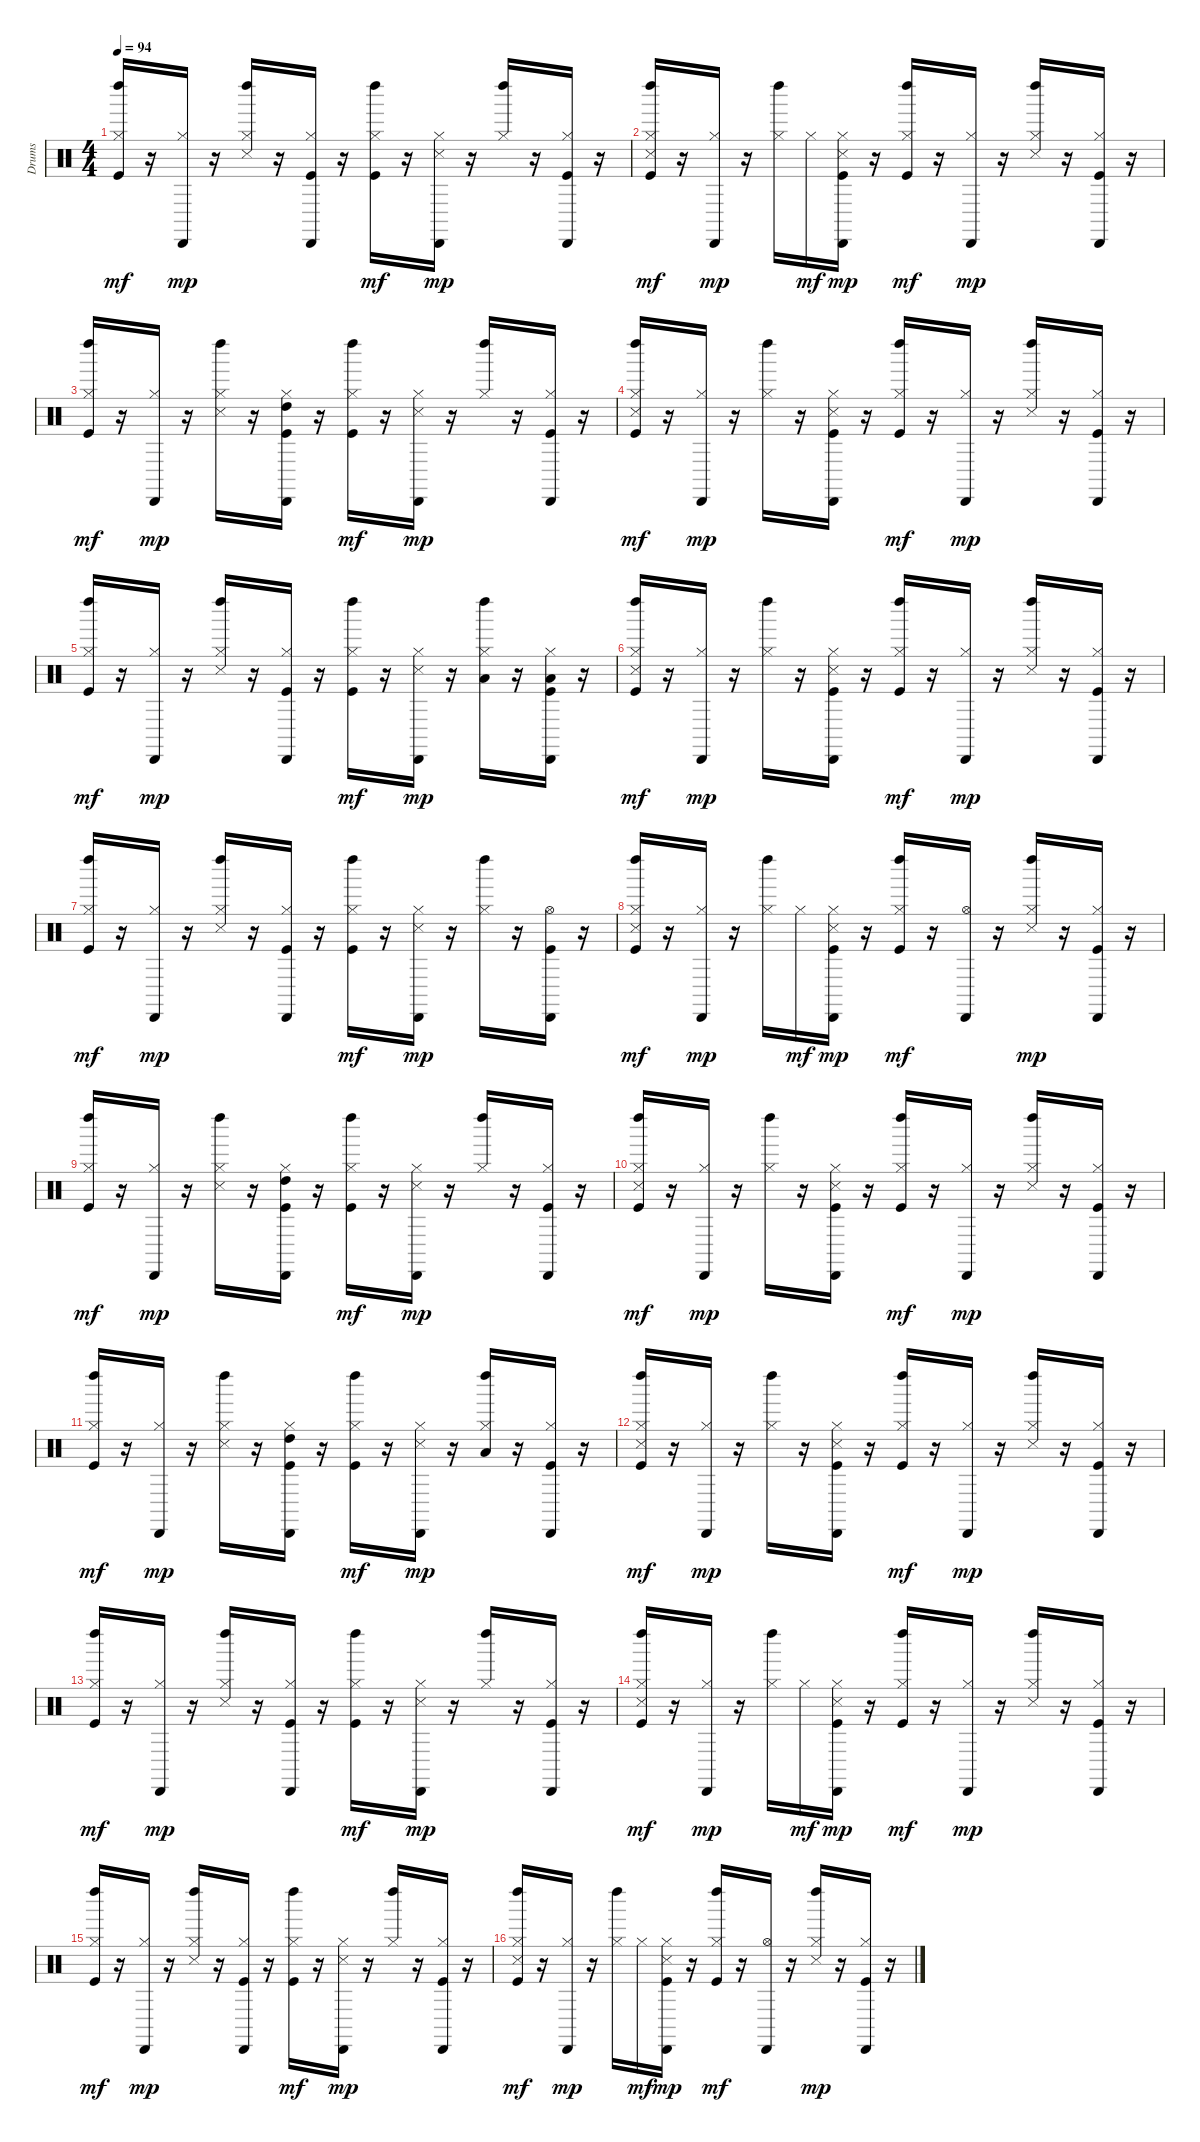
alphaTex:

\track ("Drums" "Drums") {instrument percussion}
\staff {score}
\articulation defaults
\ts (4 4)
\tempo 94
\clef neutral
\ks c
("Left Maraca (hit)" "Hi-Hat (closed)" "Kick (hit)").16{dy mf} r.16 ("Cabasa (hit)" "Hi-Hat (closed)").16{dy mp} r.16 ("Left Maraca (hit)" "Hi-Hat (closed)" "Snare (side stick) 3").16 r.16 ("Cabasa (hit)" "Hi-Hat (closed)" "Kick (hit)").16 r.16 ("Left Maraca (hit)" "Hi-Hat (closed)" "Kick (hit)").16{dy mf} r.16 ("Cabasa (hit)" "Hi-Hat (closed)" "Snare (side stick) 3").16{dy mp} r.16 ("Left Maraca (hit)" "Hi-Hat (closed)").16 r.16 ("Cabasa (hit)" "Hi-Hat (closed)" "Kick (hit)").16 r.16 |
("Left Maraca (hit)" "Hi-Hat (closed)" "Snare (side stick) 3" "Kick (hit)").16{dy mf} r.16 ("Cabasa (hit)" "Hi-Hat (closed)").16{dy mp} r.16 ("Left Maraca (hit)" "Hi-Hat (closed)").16 "Hi-Hat (closed)".16{dy mf} ("Cabasa (hit)" "Hi-Hat (closed)" "Snare (side stick) 3" "Kick (hit)").16{dy mp} r.16 ("Left Maraca (hit)" "Hi-Hat (closed)" "Kick (hit)").16{dy mf} r.16 ("Cabasa (hit)" "Hi-Hat (closed)").16{dy mp} r.16 ("Left Maraca (hit)" "Hi-Hat (closed)" "Snare (side stick) 3").16 r.16 ("Cabasa (hit)" "Hi-Hat (closed)" "Kick (hit)").16 r.16 |
("Left Maraca (hit)" "Hi-Hat (closed)" "Kick (hit)").16{dy mf} r.16 ("Cabasa (hit)" "Hi-Hat (closed)").16{dy mp} r.16 ("Left Maraca (hit)" "Hi-Hat (closed)" "Snare (side stick) 3").16 r.16 ("Cabasa (hit)" "High Tom (hit)" "Hi-Hat (closed)" "Kick (hit)").16 r.16 ("Left Maraca (hit)" "Hi-Hat (closed)" "Kick (hit)").16{dy mf} r.16 ("Cabasa (hit)" "Hi-Hat (closed)" "Snare (side stick) 3").16{dy mp} r.16 ("Left Maraca (hit)" "Hi-Hat (closed)").16 r.16 ("Cabasa (hit)" "Hi-Hat (closed)" "Kick (hit)").16 r.16 |
("Left Maraca (hit)" "Hi-Hat (closed)" "Snare (side stick) 3" "Kick (hit)").16{dy mf} r.16 ("Cabasa (hit)" "Hi-Hat (closed)").16{dy mp} r.16 ("Left Maraca (hit)" "Hi-Hat (closed)").16 r.16 ("Cabasa (hit)" "Hi-Hat (closed)" "Snare (side stick) 3" "Kick (hit)").16 r.16 ("Left Maraca (hit)" "Hi-Hat (closed)" "Kick (hit)").16{dy mf} r.16 ("Cabasa (hit)" "Hi-Hat (closed)").16{dy mp} r.16 ("Left Maraca (hit)" "Hi-Hat (closed)" "Snare (side stick) 3").16 r.16 ("Cabasa (hit)" "Hi-Hat (closed)" "Kick (hit)").16 r.16 |
("Left Maraca (hit)" "Hi-Hat (closed)" "Kick (hit)").16{dy mf} r.16 ("Cabasa (hit)" "Hi-Hat (closed)").16{dy mp} r.16 ("Left Maraca (hit)" "Hi-Hat (closed)" "Snare (side stick) 3").16 r.16 ("Cabasa (hit)" "Hi-Hat (closed)" "Kick (hit)").16 r.16 ("Left Maraca (hit)" "Hi-Hat (closed)" "Kick (hit)").16{dy mf} r.16 ("Cabasa (hit)" "Hi-Hat (closed)" "Snare (side stick) 3").16{dy mp} r.16 ("Left Maraca (hit)" "Low Tom (hit)" "Hi-Hat (closed)").16 r.16 ("Cabasa (hit)" "Low Tom (hit)" "Hi-Hat (closed)" "Kick (hit)").16 r.16 |
("Left Maraca (hit)" "Hi-Hat (closed)" "Snare (side stick) 3" "Kick (hit)").16{dy mf} r.16 ("Cabasa (hit)" "Hi-Hat (closed)").16{dy mp} r.16 ("Left Maraca (hit)" "Hi-Hat (closed)").16 r.16 ("Cabasa (hit)" "Hi-Hat (closed)" "Snare (side stick) 3" "Kick (hit)").16 r.16 ("Left Maraca (hit)" "Hi-Hat (closed)" "Kick (hit)").16{dy mf} r.16 ("Cabasa (hit)" "Hi-Hat (closed)").16{dy mp} r.16 ("Left Maraca (hit)" "Hi-Hat (closed)" "Snare (side stick) 3").16 r.16 ("Cabasa (hit)" "Hi-Hat (closed)" "Kick (hit)").16 r.16 |
("Left Maraca (hit)" "Hi-Hat (closed)" "Kick (hit)").16{dy mf} r.16 ("Cabasa (hit)" "Hi-Hat (closed)").16{dy mp} r.16 ("Left Maraca (hit)" "Hi-Hat (closed)" "Snare (side stick) 3").16 r.16 ("Cabasa (hit)" "Hi-Hat (closed)" "Kick (hit)").16 r.16 ("Left Maraca (hit)" "Hi-Hat (closed)" "Kick (hit)").16{dy mf} r.16 ("Cabasa (hit)" "Hi-Hat (closed)" "Snare (side stick) 3").16{dy mp} r.16 ("Left Maraca (hit)" "Hi-Hat (closed)").16 r.16 ("Cabasa (hit)" "Hi-Hat (open)" "Kick (hit)").16 r.16 |
("Left Maraca (hit)" "Hi-Hat (closed)" "Snare (side stick) 3" "Kick (hit)").16{dy mf} r.16 ("Cabasa (hit)" "Hi-Hat (closed)").16{dy mp} r.16 ("Left Maraca (hit)" "Hi-Hat (closed)").16 "Hi-Hat (closed)".16{dy mf} ("Cabasa (hit)" "Hi-Hat (closed)" "Snare (side stick) 3" "Kick (hit)").16{dy mp} r.16 ("Left Maraca (hit)" "Hi-Hat (closed)" "Kick (hit)").16{dy mf} r.16 ("Cabasa (hit)" "Hi-Hat (open)").16 r.16 ("Left Maraca (hit)" "Hi-Hat (closed)" "Snare (side stick) 3").16{dy mp} r.16 ("Cabasa (hit)" "Hi-Hat (closed)" "Kick (hit)").16 r.16 |
("Left Maraca (hit)" "Hi-Hat (closed)" "Kick (hit)").16{dy mf} r.16 ("Cabasa (hit)" "Hi-Hat (closed)").16{dy mp} r.16 ("Left Maraca (hit)" "Hi-Hat (closed)" "Snare (side stick) 3").16 r.16 ("Cabasa (hit)" "High Tom (hit)" "Hi-Hat (closed)" "Kick (hit)").16 r.16 ("Left Maraca (hit)" "Hi-Hat (closed)" "Kick (hit)").16{dy mf} r.16 ("Cabasa (hit)" "Hi-Hat (closed)" "Snare (side stick) 3").16{dy mp} r.16 ("Left Maraca (hit)" "Hi-Hat (closed)").16 r.16 ("Cabasa (hit)" "Hi-Hat (closed)" "Kick (hit)").16 r.16 |
("Left Maraca (hit)" "Hi-Hat (closed)" "Snare (side stick) 3" "Kick (hit)").16{dy mf} r.16 ("Cabasa (hit)" "Hi-Hat (closed)").16{dy mp} r.16 ("Left Maraca (hit)" "Hi-Hat (closed)").16 r.16 ("Cabasa (hit)" "Hi-Hat (closed)" "Snare (side stick) 3" "Kick (hit)").16 r.16 ("Left Maraca (hit)" "Hi-Hat (closed)" "Kick (hit)").16{dy mf} r.16 ("Cabasa (hit)" "Hi-Hat (closed)").16{dy mp} r.16 ("Left Maraca (hit)" "Hi-Hat (closed)" "Snare (side stick) 3").16 r.16 ("Cabasa (hit)" "Hi-Hat (closed)" "Kick (hit)").16 r.16 |
("Left Maraca (hit)" "Hi-Hat (closed)" "Kick (hit)").16{dy mf} r.16 ("Cabasa (hit)" "Hi-Hat (closed)").16{dy mp} r.16 ("Left Maraca (hit)" "Hi-Hat (closed)" "Snare (side stick) 3").16 r.16 ("Cabasa (hit)" "High Tom (hit)" "Hi-Hat (closed)" "Kick (hit)").16 r.16 ("Left Maraca (hit)" "Hi-Hat (closed)" "Kick (hit)").16{dy mf} r.16 ("Cabasa (hit)" "Hi-Hat (closed)" "Snare (side stick) 3").16{dy mp} r.16 ("Left Maraca (hit)" "Low Tom (hit)" "Hi-Hat (closed)").16 r.16 ("Cabasa (hit)" "Hi-Hat (closed)" "Kick (hit)").16 r.16 |
("Left Maraca (hit)" "Hi-Hat (closed)" "Snare (side stick) 3" "Kick (hit)").16{dy mf} r.16 ("Cabasa (hit)" "Hi-Hat (closed)").16{dy mp} r.16 ("Left Maraca (hit)" "Hi-Hat (closed)").16 r.16 ("Cabasa (hit)" "Hi-Hat (closed)" "Snare (side stick) 3" "Kick (hit)").16 r.16 ("Left Maraca (hit)" "Hi-Hat (closed)" "Kick (hit)").16{dy mf} r.16 ("Cabasa (hit)" "Hi-Hat (closed)").16{dy mp} r.16 ("Left Maraca (hit)" "Hi-Hat (closed)" "Snare (side stick) 3").16 r.16 ("Cabasa (hit)" "Hi-Hat (closed)" "Kick (hit)").16 r.16 |
("Left Maraca (hit)" "Hi-Hat (closed)" "Kick (hit)").16{dy mf} r.16 ("Cabasa (hit)" "Hi-Hat (closed)").16{dy mp} r.16 ("Left Maraca (hit)" "Hi-Hat (closed)" "Snare (side stick) 3").16 r.16 ("Cabasa (hit)" "Hi-Hat (closed)" "Kick (hit)").16 r.16 ("Left Maraca (hit)" "Hi-Hat (closed)" "Kick (hit)").16{dy mf} r.16 ("Cabasa (hit)" "Hi-Hat (closed)" "Snare (side stick) 3").16{dy mp} r.16 ("Left Maraca (hit)" "Hi-Hat (closed)").16 r.16 ("Cabasa (hit)" "Hi-Hat (closed)" "Kick (hit)").16 r.16 |
("Left Maraca (hit)" "Hi-Hat (closed)" "Snare (side stick) 3" "Kick (hit)").16{dy mf} r.16 ("Cabasa (hit)" "Hi-Hat (closed)").16{dy mp} r.16 ("Left Maraca (hit)" "Hi-Hat (closed)").16 "Hi-Hat (closed)".16{dy mf} ("Cabasa (hit)" "Hi-Hat (closed)" "Snare (side stick) 3" "Kick (hit)").16{dy mp} r.16 ("Left Maraca (hit)" "Hi-Hat (closed)" "Kick (hit)").16{dy mf} r.16 ("Cabasa (hit)" "Hi-Hat (closed)").16{dy mp} r.16 ("Left Maraca (hit)" "Hi-Hat (closed)" "Snare (side stick) 3").16 r.16 ("Cabasa (hit)" "Hi-Hat (closed)" "Kick (hit)").16 r.16 |
("Left Maraca (hit)" "Hi-Hat (closed)" "Kick (hit)").16{dy mf} r.16 ("Cabasa (hit)" "Hi-Hat (closed)").16{dy mp} r.16 ("Left Maraca (hit)" "Hi-Hat (closed)" "Snare (side stick) 3").16 r.16 ("Cabasa (hit)" "Hi-Hat (closed)" "Kick (hit)").16 r.16 ("Left Maraca (hit)" "Hi-Hat (closed)" "Kick (hit)").16{dy mf} r.16 ("Cabasa (hit)" "Hi-Hat (closed)" "Snare (side stick) 3").16{dy mp} r.16 ("Left Maraca (hit)" "Hi-Hat (closed)").16 r.16 ("Cabasa (hit)" "Hi-Hat (closed)" "Kick (hit)").16 r.16 |
("Left Maraca (hit)" "Hi-Hat (closed)" "Snare (side stick) 3" "Kick (hit)").16{dy mf} r.16 ("Cabasa (hit)" "Hi-Hat (closed)").16{dy mp} r.16 ("Left Maraca (hit)" "Hi-Hat (closed)").16 "Hi-Hat (closed)".16{dy mf} ("Cabasa (hit)" "Hi-Hat (closed)" "Snare (side stick) 3" "Kick (hit)").16{dy mp} r.16 ("Left Maraca (hit)" "Hi-Hat (closed)" "Kick (hit)").16{dy mf} r.16 ("Cabasa (hit)" "Hi-Hat (open)").16 r.16 ("Left Maraca (hit)" "Hi-Hat (closed)" "Snare (side stick) 3").16{dy mp} r.16 ("Cabasa (hit)" "Hi-Hat (closed)" "Kick (hit)").16 r.16
